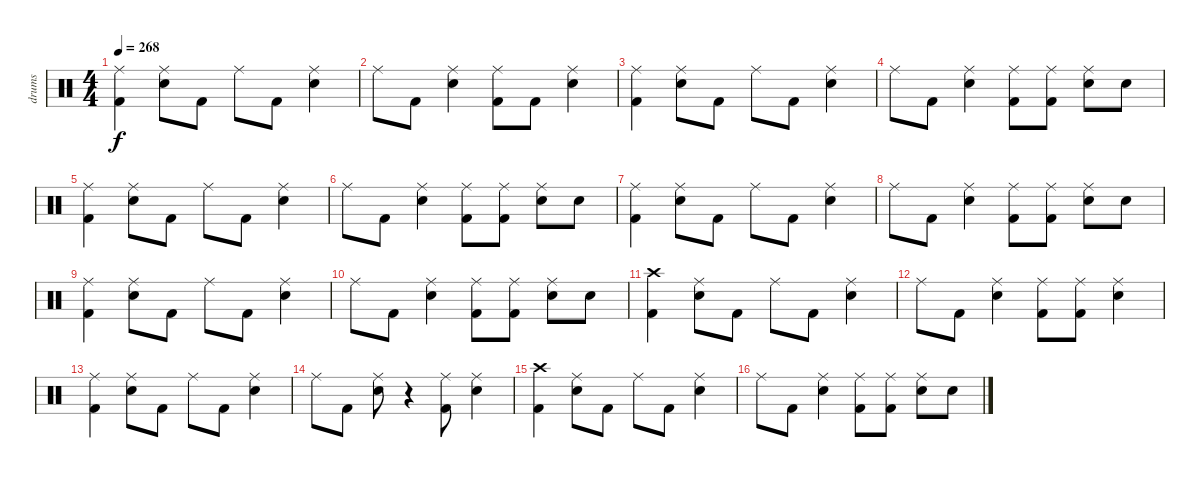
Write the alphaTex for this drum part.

\track ("drums" "drums") {instrument percussion}
\staff {score}
\articulation defaults
\ts (4 4)
\tempo 268
\clef neutral
\ks c
("Ride (middle)" "Kick (hit) 2").4{dy f} ("Ride (middle)" "Electric Snare (hit)").8 "Kick (hit) 2".8 "Ride (middle)".8 "Kick (hit) 2".8 ("Ride (middle)" "Electric Snare (hit)").4 |
"Ride (middle)".8 "Kick (hit) 2".8 ("Ride (middle)" "Electric Snare (hit)").4 ("Ride (middle)" "Kick (hit) 2").8 "Kick (hit) 2".8 ("Ride (middle)" "Electric Snare (hit)").4 |
("Ride (middle)" "Kick (hit) 2").4 ("Ride (middle)" "Electric Snare (hit)").8 "Kick (hit) 2".8 "Ride (middle)".8 "Kick (hit) 2".8 ("Ride (middle)" "Electric Snare (hit)").4 |
"Ride (middle)".8 "Kick (hit) 2".8 ("Ride (middle)" "Electric Snare (hit)").4 ("Ride (middle)" "Kick (hit) 2").8 ("Ride (middle)" "Kick (hit) 2").8 ("Ride (middle)" "Electric Snare (hit)").8 "Electric Snare (hit)".8 |
("Ride (middle)" "Kick (hit) 2").4 ("Ride (middle)" "Electric Snare (hit)").8 "Kick (hit) 2".8 "Ride (middle)".8 "Kick (hit) 2".8 ("Ride (middle)" "Electric Snare (hit)").4 |
"Ride (middle)".8 "Kick (hit) 2".8 ("Ride (middle)" "Electric Snare (hit)").4 ("Ride (middle)" "Kick (hit) 2").8 ("Ride (middle)" "Kick (hit) 2").8 ("Ride (middle)" "Electric Snare (hit)").8 "Electric Snare (hit)".8 |
("Ride (middle)" "Kick (hit) 2").4 ("Ride (middle)" "Electric Snare (hit)").8 "Kick (hit) 2".8 "Ride (middle)".8 "Kick (hit) 2".8 ("Ride (middle)" "Electric Snare (hit)").4 |
"Ride (middle)".8 "Kick (hit) 2".8 ("Ride (middle)" "Electric Snare (hit)").4 ("Ride (middle)" "Kick (hit) 2").8 ("Ride (middle)" "Kick (hit) 2").8 ("Ride (middle)" "Electric Snare (hit)").8 "Electric Snare (hit)".8 |
("Ride (middle)" "Kick (hit) 2").4 ("Ride (middle)" "Electric Snare (hit)").8 "Kick (hit) 2".8 "Ride (middle)".8 "Kick (hit) 2".8 ("Ride (middle)" "Electric Snare (hit)").4 |
"Ride (middle)".8 "Kick (hit) 2".8 ("Ride (middle)" "Electric Snare (hit)").4 ("Ride (middle)" "Kick (hit) 2").8 ("Ride (middle)" "Kick (hit) 2").8 ("Ride (middle)" "Electric Snare (hit)").8 "Electric Snare (hit)".8 |
("Crash high (hit)" "Kick (hit) 2").4 ("Ride (middle)" "Electric Snare (hit)").8 "Kick (hit) 2".8 "Ride (middle)".8 "Kick (hit) 2".8 ("Ride (middle)" "Electric Snare (hit)").4 |
"Ride (middle)".8 "Kick (hit) 2".8 ("Ride (middle)" "Electric Snare (hit)").4 ("Ride (middle)" "Kick (hit) 2").8 ("Ride (middle)" "Kick (hit) 2").8 ("Ride (middle)" "Electric Snare (hit)").4 |
("Ride (middle)" "Kick (hit) 2").4 ("Ride (middle)" "Electric Snare (hit)").8 "Kick (hit) 2".8 "Ride (middle)".8 "Kick (hit) 2".8 ("Ride (middle)" "Electric Snare (hit)").4 |
"Ride (middle)".8 "Kick (hit) 2".8 ("Ride (middle)" "Electric Snare (hit)").8 r.4 ("Ride (middle)" "Kick (hit) 2").8 ("Ride (middle)" "Electric Snare (hit)").4 |
("Crash high (hit)" "Kick (hit) 2").4 ("Ride (middle)" "Electric Snare (hit)").8 "Kick (hit) 2".8 "Ride (middle)".8 "Kick (hit) 2".8 ("Ride (middle)" "Electric Snare (hit)").4 |
"Ride (middle)".8 "Kick (hit) 2".8 ("Ride (middle)" "Electric Snare (hit)").4 ("Ride (middle)" "Kick (hit) 2").8 ("Ride (middle)" "Kick (hit) 2").8 ("Ride (middle)" "Electric Snare (hit)").8 "Electric Snare (hit)".8
